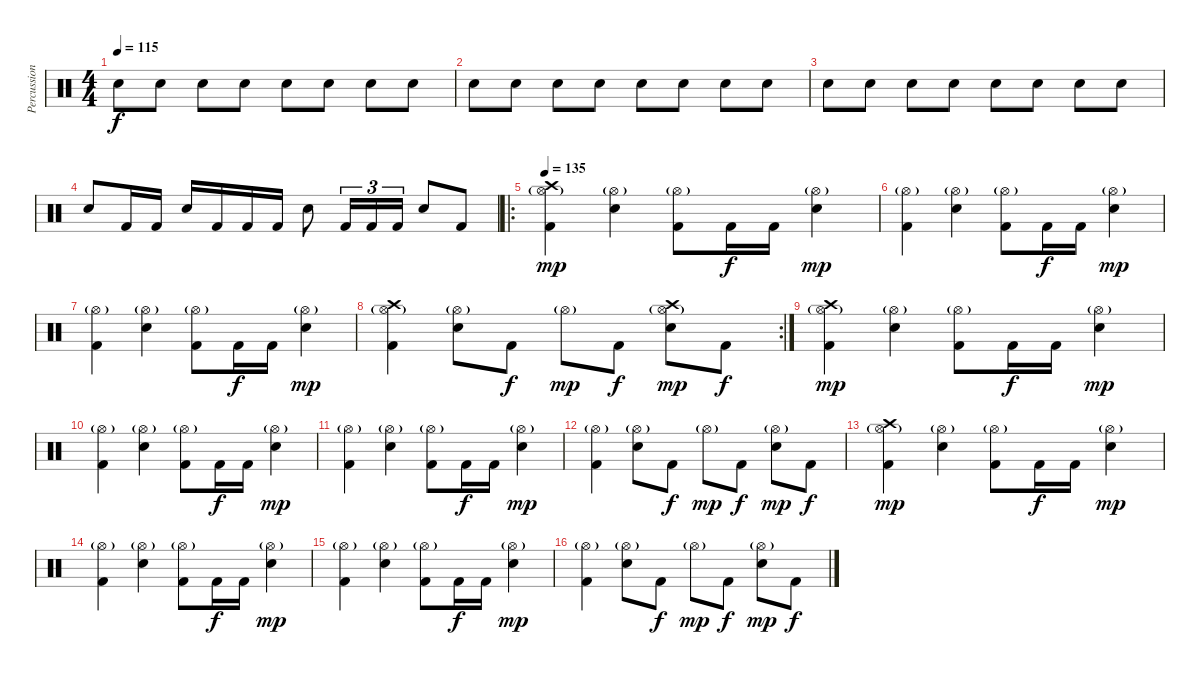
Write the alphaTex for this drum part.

\track ("Percussion" "Percussion") {instrument percussion}
\staff {score}
\articulation defaults
\ts (4 4)
\tempo 115
\clef neutral
\ks c "Snare (hit) 2".8{dy f} "Snare (hit) 2".8 "Snare (hit) 2".8 "Snare (hit) 2".8 "Snare (hit) 2".8 "Snare (hit) 2".8 "Snare (hit) 2".8 "Snare (hit) 2".8
|
"Snare (hit) 2".8 "Snare (hit) 2".8 "Snare (hit) 2".8 "Snare (hit) 2".8 "Snare (hit) 2".8 "Snare (hit) 2".8 "Snare (hit) 2".8 "Snare (hit) 2".8 |
"Snare (hit) 2".8 "Snare (hit) 2".8 "Snare (hit) 2".8 "Snare (hit) 2".8 "Snare (hit) 2".8 "Snare (hit) 2".8 "Snare (hit) 2".8 "Snare (hit) 2".8 |
"Snare (hit) 2".8 "Kick (hit) 2".16 "Kick (hit) 2".16 "Snare (hit) 2".16 "Kick (hit) 2".16 "Kick (hit) 2".16 "Kick (hit) 2".16 "Snare (hit) 2".8 "Kick (hit) 2".16{tu (3 2)} "Kick (hit) 2".16{tu (3 2)} "Kick (hit) 2".16{tu (3 2)} "Snare (hit) 2".8 "Kick (hit) 2".8 |
\ro
\tempo 135
("Hi-Hat (open)"{g} "Crash high (hit)" "Kick (hit) 2").4{dy mp} ("Hi-Hat (open)"{g} "Snare (hit) 2").4 ("Hi-Hat (open)"{g} "Kick (hit) 2").8 "Kick (hit) 2".16{dy f} "Kick (hit) 2".16 ("Hi-Hat (open)"{g} "Snare (hit) 2").4{dy mp} |
("Hi-Hat (open)"{g} "Kick (hit) 2").4 ("Hi-Hat (open)"{g} "Snare (hit) 2").4 ("Hi-Hat (open)"{g} "Kick (hit) 2").8 "Kick (hit) 2".16{dy f} "Kick (hit) 2".16 ("Hi-Hat (open)"{g} "Snare (hit) 2").4{dy mp} |
("Hi-Hat (open)"{g} "Kick (hit) 2").4 ("Hi-Hat (open)"{g} "Snare (hit) 2").4 ("Hi-Hat (open)"{g} "Kick (hit) 2").8 "Kick (hit) 2".16{dy f} "Kick (hit) 2".16 ("Hi-Hat (open)"{g} "Snare (hit) 2").4{dy mp} |
\rc 2
("Hi-Hat (open)"{g} "Crash high (hit)" "Kick (hit) 2").4 ("Hi-Hat (open)"{g} "Snare (hit) 2").8 "Kick (hit) 2".8{dy f} "Hi-Hat (open)"{g}.8{dy mp} "Kick (hit) 2".8{dy f} ("Hi-Hat (open)"{g} "Crash high (hit)" "Snare (hit) 2").8{dy mp} "Kick (hit) 2".8{dy f} |
("Hi-Hat (open)"{g} "Crash high (hit)" "Kick (hit) 2").4{dy mp} ("Hi-Hat (open)"{g} "Snare (hit) 2").4 ("Hi-Hat (open)"{g} "Kick (hit) 2").8 "Kick (hit) 2".16{dy f} "Kick (hit) 2".16 ("Hi-Hat (open)"{g} "Snare (hit) 2").4{dy mp} |
("Hi-Hat (open)"{g} "Kick (hit) 2").4 ("Hi-Hat (open)"{g} "Snare (hit) 2").4 ("Hi-Hat (open)"{g} "Kick (hit) 2").8 "Kick (hit) 2".16{dy f} "Kick (hit) 2".16 ("Hi-Hat (open)"{g} "Snare (hit) 2").4{dy mp} |
("Hi-Hat (open)"{g} "Kick (hit) 2").4 ("Hi-Hat (open)"{g} "Snare (hit) 2").4 ("Hi-Hat (open)"{g} "Kick (hit) 2").8 "Kick (hit) 2".16{dy f} "Kick (hit) 2".16 ("Hi-Hat (open)"{g} "Snare (hit) 2").4{dy mp} |
("Hi-Hat (open)"{g} "Kick (hit) 2").4 ("Hi-Hat (open)"{g} "Snare (hit) 2").8 "Kick (hit) 2".8{dy f} "Hi-Hat (open)"{g}.8{dy mp} "Kick (hit) 2".8{dy f} ("Hi-Hat (open)"{g} "Snare (hit) 2").8{dy mp} "Kick (hit) 2".8{dy f} |
("Hi-Hat (open)"{g} "Crash high (hit)" "Kick (hit) 2").4{dy mp} ("Hi-Hat (open)"{g} "Snare (hit) 2").4 ("Hi-Hat (open)"{g} "Kick (hit) 2").8 "Kick (hit) 2".16{dy f} "Kick (hit) 2".16 ("Hi-Hat (open)"{g} "Snare (hit) 2").4{dy mp} |
("Hi-Hat (open)"{g} "Kick (hit) 2").4 ("Hi-Hat (open)"{g} "Snare (hit) 2").4 ("Hi-Hat (open)"{g} "Kick (hit) 2").8 "Kick (hit) 2".16{dy f} "Kick (hit) 2".16 ("Hi-Hat (open)"{g} "Snare (hit) 2").4{dy mp} |
("Hi-Hat (open)"{g} "Kick (hit) 2").4 ("Hi-Hat (open)"{g} "Snare (hit) 2").4 ("Hi-Hat (open)"{g} "Kick (hit) 2").8 "Kick (hit) 2".16{dy f} "Kick (hit) 2".16 ("Hi-Hat (open)"{g} "Snare (hit) 2").4{dy mp} |
("Hi-Hat (open)"{g} "Kick (hit) 2").4 ("Hi-Hat (open)"{g} "Snare (hit) 2").8 "Kick (hit) 2".8{dy f} "Hi-Hat (open)"{g}.8{dy mp} "Kick (hit) 2".8{dy f} ("Hi-Hat (open)"{g} "Snare (hit) 2").8{dy mp} "Kick (hit) 2".8{dy f}
